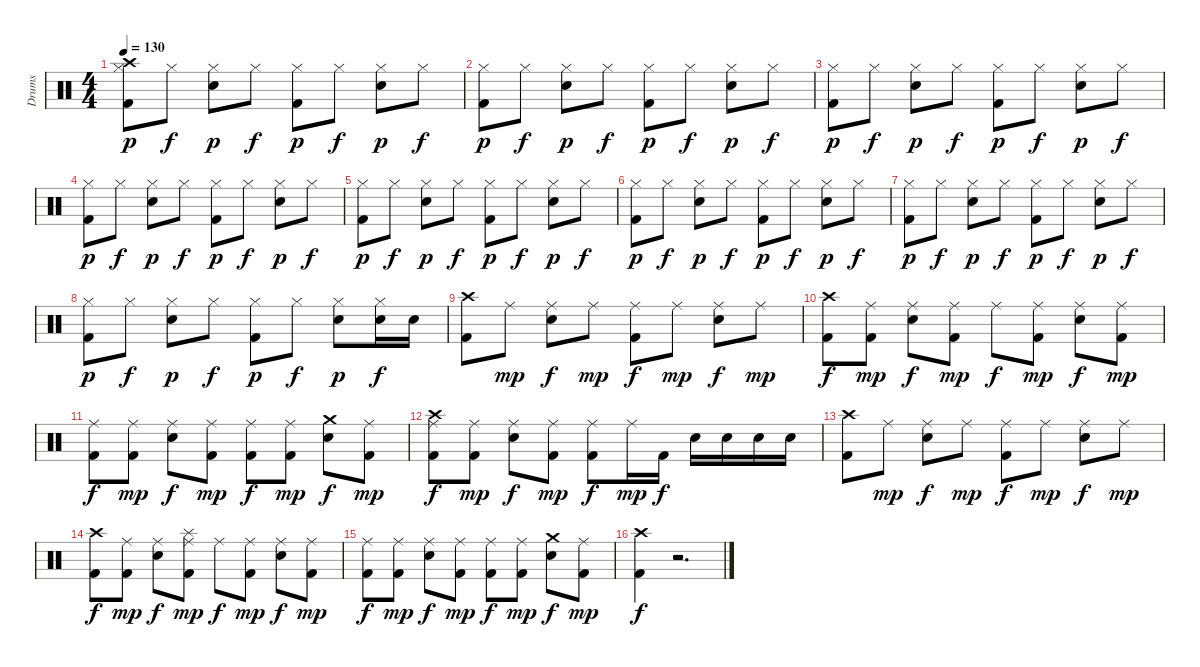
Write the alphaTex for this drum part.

\track ("Drums" "Drums") {instrument percussion}
\staff {score}
\articulation defaults
\ts (4 4)
\tempo 130
\clef neutral
\ks c
("Crash high (hit)" "Hi-Hat (closed)" "Kick (hit) 2").8{dy p} "Hi-Hat (closed)".8{dy f} ("Hi-Hat (closed)" "Electric Snare (hit)").8{dy p} "Hi-Hat (closed)".8{dy f} ("Hi-Hat (closed)" "Kick (hit) 2").8{dy p} "Hi-Hat (closed)".8{dy f} ("Hi-Hat (closed)" "Electric Snare (hit)").8{dy p} "Hi-Hat (closed)".8{dy f} |
("Hi-Hat (closed)" "Kick (hit) 2").8{dy p} "Hi-Hat (closed)".8{dy f} ("Hi-Hat (closed)" "Electric Snare (hit)").8{dy p} "Hi-Hat (closed)".8{dy f} ("Hi-Hat (closed)" "Kick (hit) 2").8{dy p} "Hi-Hat (closed)".8{dy f} ("Hi-Hat (closed)" "Electric Snare (hit)").8{dy p} "Hi-Hat (closed)".8{dy f} |
("Hi-Hat (closed)" "Kick (hit) 2").8{dy p} "Hi-Hat (closed)".8{dy f} ("Hi-Hat (closed)" "Electric Snare (hit)").8{dy p} "Hi-Hat (closed)".8{dy f} ("Hi-Hat (closed)" "Kick (hit) 2").8{dy p} "Hi-Hat (closed)".8{dy f} ("Hi-Hat (closed)" "Electric Snare (hit)").8{dy p} "Hi-Hat (closed)".8{dy f} |
("Hi-Hat (closed)" "Kick (hit) 2").8{dy p} "Hi-Hat (closed)".8{dy f} ("Hi-Hat (closed)" "Electric Snare (hit)").8{dy p} "Hi-Hat (closed)".8{dy f} ("Hi-Hat (closed)" "Kick (hit) 2").8{dy p} "Hi-Hat (closed)".8{dy f} ("Hi-Hat (closed)" "Electric Snare (hit)").8{dy p} "Hi-Hat (closed)".8{dy f} |
("Hi-Hat (closed)" "Kick (hit) 2").8{dy p} "Hi-Hat (closed)".8{dy f} ("Hi-Hat (closed)" "Electric Snare (hit)").8{dy p} "Hi-Hat (closed)".8{dy f} ("Hi-Hat (closed)" "Kick (hit) 2").8{dy p} "Hi-Hat (closed)".8{dy f} ("Hi-Hat (closed)" "Electric Snare (hit)").8{dy p} "Hi-Hat (closed)".8{dy f} |
("Hi-Hat (closed)" "Kick (hit) 2").8{dy p} "Hi-Hat (closed)".8{dy f} ("Hi-Hat (closed)" "Electric Snare (hit)").8{dy p} "Hi-Hat (closed)".8{dy f} ("Hi-Hat (closed)" "Kick (hit) 2").8{dy p} "Hi-Hat (closed)".8{dy f} ("Hi-Hat (closed)" "Electric Snare (hit)").8{dy p} "Hi-Hat (closed)".8{dy f} |
("Hi-Hat (closed)" "Kick (hit) 2").8{dy p} "Hi-Hat (closed)".8{dy f} ("Hi-Hat (closed)" "Electric Snare (hit)").8{dy p} "Hi-Hat (closed)".8{dy f} ("Hi-Hat (closed)" "Kick (hit) 2").8{dy p} "Hi-Hat (closed)".8{dy f} ("Hi-Hat (closed)" "Electric Snare (hit)").8{dy p} "Hi-Hat (closed)".8{dy f} |
("Hi-Hat (closed)" "Kick (hit) 2").8{dy p} "Hi-Hat (closed)".8{dy f} ("Hi-Hat (closed)" "Electric Snare (hit)").8{dy p} "Hi-Hat (closed)".8{dy f} ("Hi-Hat (closed)" "Kick (hit) 2").8{dy p} "Hi-Hat (closed)".8{dy f} ("Hi-Hat (closed)" "Electric Snare (hit)").8{dy p} ("Hi-Hat (closed)" "Electric Snare (hit)").16{dy f} "Electric Snare (hit)".16 |
("Crash high (hit)" "Kick (hit) 2").8 "Ride (middle)".8{dy mp} ("Ride (middle)" "Electric Snare (hit)").8{dy f} "Ride (middle)".8{dy mp} ("Ride (middle)" "Kick (hit) 2").8{dy f} "Ride (middle)".8{dy mp} ("Ride (middle)" "Electric Snare (hit)").8{dy f} "Ride (middle)".8{dy mp} |
("Crash high (hit)" "Kick (hit) 2").8{dy f} ("Ride (middle)" "Kick (hit) 2").8{dy mp} ("Ride (middle)" "Electric Snare (hit)").8{dy f} ("Ride (middle)" "Kick (hit) 2").8{dy mp} "Ride (middle)".8{dy f} ("Ride (middle)" "Kick (hit) 2").8{dy mp} ("Ride (middle)" "Electric Snare (hit)").8{dy f} ("Ride (middle)" "Kick (hit) 2").8{dy mp} |
("Ride (middle)" "Kick (hit) 2").8{dy f} ("Ride (middle)" "Kick (hit) 2").8{dy mp} ("Ride (middle)" "Electric Snare (hit)").8{dy f} ("Ride (middle)" "Kick (hit) 2").8{dy mp} ("Ride (middle)" "Kick (hit) 2").8{dy f} ("Ride (middle)" "Kick (hit) 2").8{dy mp} ("Crash medium (hit)" "Electric Snare (hit)").8{dy f} ("Ride (middle)" "Kick (hit) 2").8{dy mp} |
("Crash high (hit)" "Ride (middle)" "Kick (hit) 2").8{dy f} ("Ride (middle)" "Kick (hit) 2").8{dy mp} ("Ride (middle)" "Electric Snare (hit)").8{dy f} ("Ride (middle)" "Kick (hit) 2").8{dy mp} ("Ride (middle)" "Kick (hit) 2").8{dy f} "Ride (middle)".16{dy mp} "Kick (hit) 2".16{dy f} "Electric Snare (hit)".16 "Electric Snare (hit)".16 "Electric Snare (hit)".16 "Electric Snare (hit)".16 |
("Crash high (hit)" "Kick (hit) 2").8 "Ride (middle)".8{dy mp} ("Ride (middle)" "Electric Snare (hit)").8{dy f} "Ride (middle)".8{dy mp} ("Ride (middle)" "Kick (hit) 2").8{dy f} "Ride (middle)".8{dy mp} ("Ride (middle)" "Electric Snare (hit)").8{dy f} "Ride (middle)".8{dy mp} |
("Crash high (hit)" "Kick (hit) 2").8{dy f} ("Ride (middle)" "Kick (hit) 2").8{dy mp} ("Ride (middle)" "Electric Snare (hit)").8{dy f} ("Splash (hit)" "Ride (middle)" "Kick (hit) 2").8{dy mp} "Ride (middle)".8{dy f} ("Ride (middle)" "Kick (hit) 2").8{dy mp} ("Ride (middle)" "Electric Snare (hit)").8{dy f} ("Ride (middle)" "Kick (hit) 2").8{dy mp} |
("Ride (middle)" "Kick (hit) 2").8{dy f} ("Ride (middle)" "Kick (hit) 2").8{dy mp} ("Ride (middle)" "Electric Snare (hit)").8{dy f} ("Ride (middle)" "Kick (hit) 2").8{dy mp} ("Ride (middle)" "Kick (hit) 2").8{dy f} ("Ride (middle)" "Kick (hit) 2").8{dy mp} ("Crash medium (hit)" "Electric Snare (hit)").8{dy f} ("Ride (middle)" "Kick (hit) 2").8{dy mp} |
("Crash high (hit)" "Kick (hit) 2").4{dy f} r.2{d}
